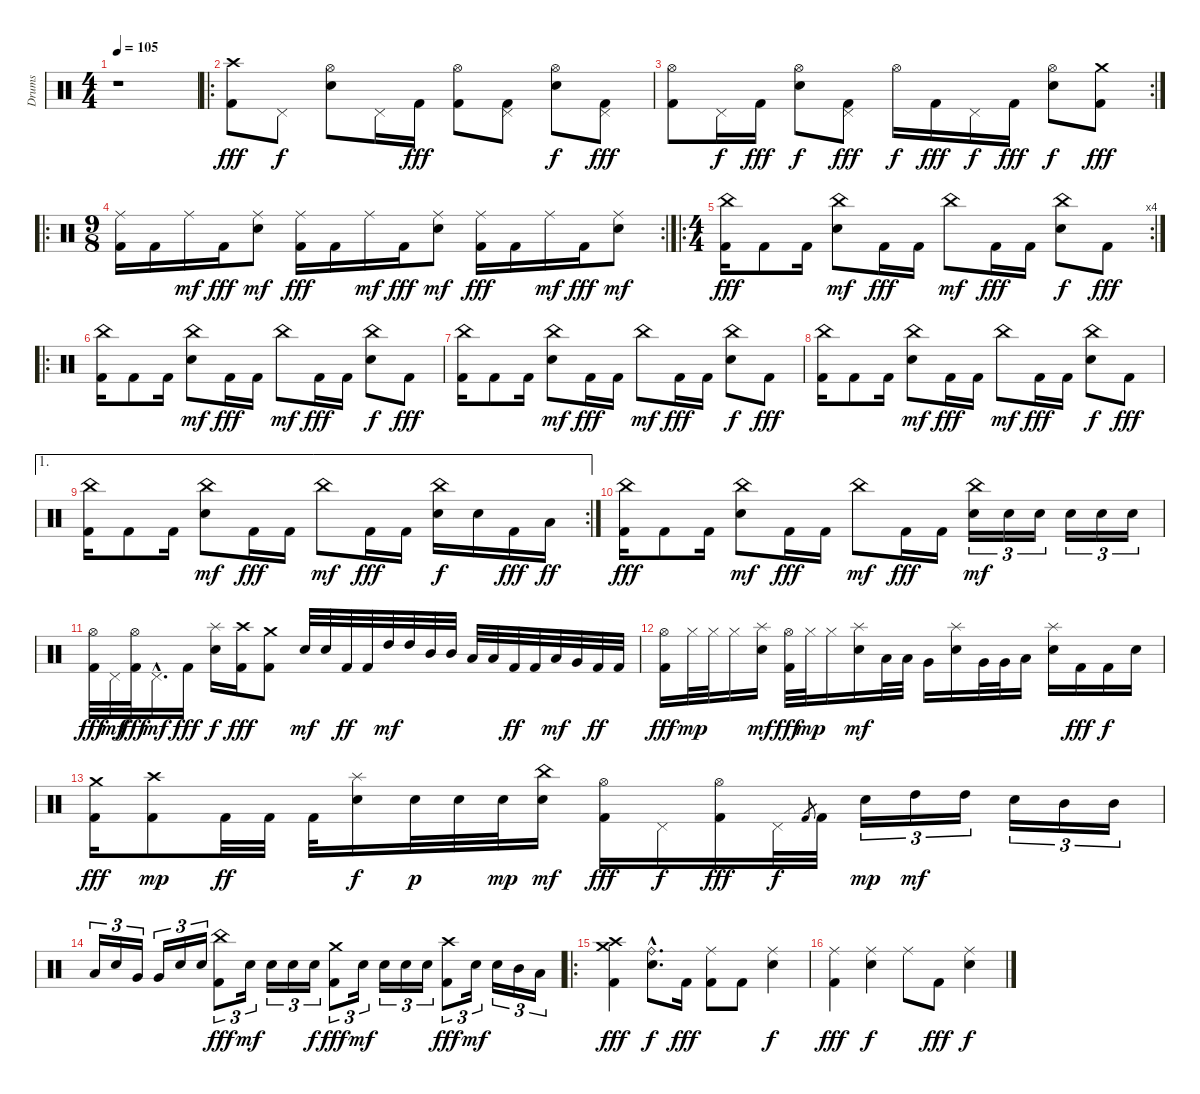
\track ("Drums" "Drums") {instrument percussion}
\staff {score}
\articulation defaults
\ts (4 4)
\tempo 105
\clef neutral
\ks c
r.1{dy fff} |
\ro
("Crash high (hit)" "Kick (hit) 2").8 "Pedal Hi-Hat (hit)".8{dy f} ("Hi-Hat (open)" "Electric Snare (hit)").8 "Pedal Hi-Hat (hit)".16 "Kick (hit) 2".16{dy fff} ("Hi-Hat (open)" "Kick (hit) 2").8 ("Pedal Hi-Hat (hit)" "Kick (hit) 2").8 ("Hi-Hat (open)" "Electric Snare (hit)").8{dy f} ("Pedal Hi-Hat (hit)" "Kick (hit) 2").8{dy fff} |
\rc 2
("Hi-Hat (open)" "Kick (hit) 2").8 "Pedal Hi-Hat (hit)".16{dy f} "Kick (hit) 2".16{dy fff} ("Hi-Hat (open)" "Electric Snare (hit)").8{dy f} ("Pedal Hi-Hat (hit)" "Kick (hit) 2").8{dy fff} "Hi-Hat (open)".16{dy f} "Kick (hit) 2".16{dy fff} "Pedal Hi-Hat (hit)".16{dy f} "Kick (hit) 2".16{dy fff} ("Hi-Hat (open)" "Electric Snare (hit)").8{dy f} ("Crash medium (hit)" "Kick (hit) 2").8{dy fff} |
\ro
\rc 2
\ts (9 8)
("Ride (middle)" "Kick (hit) 2").16 "Kick (hit) 2".16 "Ride (middle)".16{dy mf} "Kick (hit) 2".16{dy fff} ("Ride (middle)" "Electric Snare (hit)").8{dy mf} ("Ride (middle)" "Kick (hit) 2").16{dy fff} "Kick (hit) 2".16 "Ride (middle)".16{dy mf} "Kick (hit) 2".16{dy fff} ("Ride (middle)" "Electric Snare (hit)").8{dy mf} ("Ride (middle)" "Kick (hit) 2").16{dy fff} "Kick (hit) 2".16 "Ride (middle)".16{dy mf} "Kick (hit) 2".16{dy fff} ("Ride (middle)" "Electric Snare (hit)").8{dy mf} |
\ro
\rc 4
\ts (4 4)
("China (hit)" "Kick (hit) 2").16{dy fff} "Kick (hit) 2".8 "Kick (hit) 2".16 ("China (hit)" "Electric Snare (hit)").8{dy mf} "Kick (hit) 2".16{dy fff} "Kick (hit) 2".16 "China (hit)".8{dy mf} "Kick (hit) 2".16{dy fff} "Kick (hit) 2".16 ("China (hit)" "Electric Snare (hit)").8{dy f} "Kick (hit) 2".8{dy fff} |
\ro
("China (hit)" "Kick (hit) 2").16 "Kick (hit) 2".8 "Kick (hit) 2".16 ("China (hit)" "Electric Snare (hit)").8{dy mf} "Kick (hit) 2".16{dy fff} "Kick (hit) 2".16 "China (hit)".8{dy mf} "Kick (hit) 2".16{dy fff} "Kick (hit) 2".16 ("China (hit)" "Electric Snare (hit)").8{dy f} "Kick (hit) 2".8{dy fff} |
("China (hit)" "Kick (hit) 2").16 "Kick (hit) 2".8 "Kick (hit) 2".16 ("China (hit)" "Electric Snare (hit)").8{dy mf} "Kick (hit) 2".16{dy fff} "Kick (hit) 2".16 "China (hit)".8{dy mf} "Kick (hit) 2".16{dy fff} "Kick (hit) 2".16 ("China (hit)" "Electric Snare (hit)").8{dy f} "Kick (hit) 2".8{dy fff} |
("China (hit)" "Kick (hit) 2").16 "Kick (hit) 2".8 "Kick (hit) 2".16 ("China (hit)" "Electric Snare (hit)").8{dy mf} "Kick (hit) 2".16{dy fff} "Kick (hit) 2".16 "China (hit)".8{dy mf} "Kick (hit) 2".16{dy fff} "Kick (hit) 2".16 ("China (hit)" "Electric Snare (hit)").8{dy f} "Kick (hit) 2".8{dy fff} |
\ae 1
\rc 2
("China (hit)" "Kick (hit) 2").16 "Kick (hit) 2".8 "Kick (hit) 2".16 ("China (hit)" "Electric Snare (hit)").8{dy mf} "Kick (hit) 2".16{dy fff} "Kick (hit) 2".16 "China (hit)".8{dy mf} "Kick (hit) 2".16{dy fff} "Kick (hit) 2".16 ("China (hit)" "Electric Snare (hit)").16{dy f} "Electric Snare (hit)".16 "Kick (hit) 2".16{dy fff} "Low Tom (hit)".16{dy ff} |
("China (hit)" "Kick (hit) 2").16{dy fff} "Kick (hit) 2".8 "Kick (hit) 2".16 ("China (hit)" "Electric Snare (hit)").8{dy mf} "Kick (hit) 2".16{dy fff} "Kick (hit) 2".16 "China (hit)".8{dy mf} "Kick (hit) 2".16{dy fff} "Kick (hit) 2".16 ("China (hit)" "Electric Snare (hit)").16{tu (3 2) dy mf} "Electric Snare (hit)".16{tu (3 2)} "Electric Snare (hit)".16{tu (3 2)} "Electric Snare (hit)".16{tu (3 2)} "Electric Snare (hit)".16{tu (3 2)} "Electric Snare (hit)".16{tu (3 2)} |
("Hi-Hat (open)" "Kick (hit) 2").32{dy fff} "Pedal Hi-Hat (hit)".32{dy mf} ("Hi-Hat (open)" "Kick (hit) 2").32{dy fff} "Pedal Hi-Hat (hit)"{hac}.16{d dy mf} "Kick (hit) 2".16{dy fff} ("Splash (hit)" "Electric Snare (hit)").16{dy f} ("Crash high (hit)" "Kick (hit) 2").16{dy fff} ("Crash medium (hit)" "Kick (hit) 2").8 "Electric Snare (hit)".32{dy mf} "Electric Snare (hit)".32 "Kick (hit) 2".32{dy ff} "Kick (hit) 2".32 "High Tom (hit)".32{dy mf} "High Tom (hit)".32 "Mid Tom (hit)".32 "Mid Tom (hit)".32 "Low Tom (hit)".32 "Low Tom (hit)".32 "Kick (hit) 2".32{dy ff} "Kick (hit) 2".32 "Low Tom (hit)".32{dy mf} "Very Low Tom (hit)".32 "Kick (hit) 2".32{dy ff} "Kick (hit) 2".32 |
("Hi-Hat (open)" "Kick (hit) 2").16{dy fff} "Hi-Hat (closed)".32{dy mp} "Hi-Hat (closed)".32 "Hi-Hat (closed)".16 ("Splash (hit)" "Electric Snare (hit)").16{dy mf} ("Hi-Hat (open)" "Kick (hit) 2").32{dy fff} "Hi-Hat (closed)".32{dy mp} "Hi-Hat (closed)".16 ("Splash (hit)" "Electric Snare (hit)").16{dy mf} "Low Tom (hit)".32 "Low Tom (hit)".32 "Very Low Tom (hit)".16 ("Splash (hit)" "Electric Snare (hit)").16 "Very Low Tom (hit)".32 "Very Low Tom (hit)".32 "Low Floor Tom (hit)".16 ("Splash (hit)" "Electric Snare (hit)").16 "Kick (hit) 2".16{dy fff} "Kick (hit) 2".16{dy f} "Electric Snare (hit)".16 |
("Crash medium (hit)" "Kick (hit) 2").16{dy fff} ("Crash high (hit)" "Kick (hit) 2").8{dy mp} "Kick (hit) 2".32{dy ff} "Kick (hit) 2".32 "Kick (hit) 2".32 ("Splash (hit)" "Electric Snare (hit)").16{dy f} "Electric Snare (hit)".32{dy p} "Electric Snare (hit)".32 "Electric Snare (hit)".32{dy mp} ("China (hit)" "Electric Snare (hit)").16{dy mf} ("Hi-Hat (open)" "Kick (hit) 2").16{dy fff} "Pedal Hi-Hat (hit)".16{dy f} ("Hi-Hat (open)" "Kick (hit) 2").16{dy fff} "Pedal Hi-Hat (hit)".32{dy f} "Kick (hit) 2".8{gr} "Kick (hit) 2".32 "Electric Snare (hit)".16{tu (3 2) dy mp} "High Tom (hit)".16{tu (3 2) dy mf} "High Tom (hit)".16{tu (3 2)} "Electric Snare (hit)".16{tu (3 2)} "Mid Tom (hit)".16{tu (3 2)} "Mid Tom (hit)".16{tu (3 2)} |
"Low Tom (hit)".16{tu (3 2)} "Electric Snare (hit)".16{tu (3 2)} "Very Low Tom (hit)".16{tu (3 2)} "Very Low Tom (hit)".16{tu (3 2)} "Electric Snare (hit)".16{tu (3 2)} "Electric Snare (hit)".16{tu (3 2)} ("China (hit)" "Kick (hit) 2").8{tu (3 2) dy fff} "Electric Snare (hit)".16{tu (3 2) dy mf} "Electric Snare (hit)".16{tu (3 2)} "Electric Snare (hit)".16{tu (3 2)} "Electric Snare (hit)".16{tu (3 2) dy f} ("Crash medium (hit)" "Kick (hit) 2").8{tu (3 2) dy fff} "Electric Snare (hit)".16{tu (3 2) dy mf} "Electric Snare (hit)".16{tu (3 2)} "Electric Snare (hit)".16{tu (3 2)} "Electric Snare (hit)".16{tu (3 2)} ("Crash high (hit)" "Kick (hit) 2").8{tu (3 2) dy fff} "Electric Snare (hit)".16{tu (3 2) dy mf} "Electric Snare (hit)".16{tu (3 2)} "Mid Tom (hit)".16{tu (3 2)} "Low Tom (hit)".16{tu (3 2)} |
\ro
("Crash medium (hit)" "Crash high (hit)" "Kick (hit) 2").4{dy fff} ("Ride (bell)"{hac} "Electric Snare (hit)"{hac}).8{d dy f} "Kick (hit) 2".16{dy fff} ("Ride (middle)" "Kick (hit) 2").8 "Kick (hit) 2".8 ("Ride (middle)" "Electric Snare (hit)").4{dy f} |
("Ride (middle)" "Kick (hit) 2").4{dy fff} ("Ride (middle)" "Electric Snare (hit)").4{dy f} "Ride (middle)".8 "Kick (hit) 2".8{dy fff} ("Ride (middle)" "Electric Snare (hit)").4{dy f}
